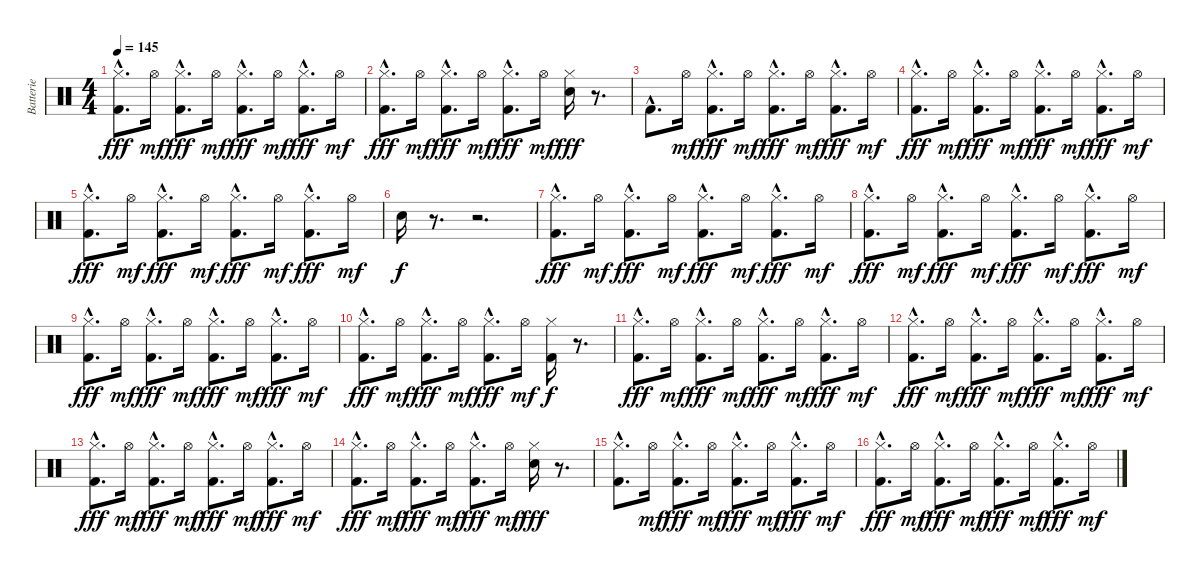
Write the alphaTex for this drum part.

\track ("Batterie" "Batterie") {instrument percussion}
\staff {score}
\articulation defaults
\ts (4 4)
\tempo 145
\clef neutral
\ks c
("Hi-Hat (closed)"{hac} "Kick (hit) 2"{hac}).8{d dy fff} "Hi-Hat (open)".16{dy mf} ("Hi-Hat (closed)"{hac} "Kick (hit) 2"{hac}).8{d dy fff} "Hi-Hat (open)".16{dy mf} ("Hi-Hat (closed)"{hac} "Kick (hit) 2"{hac}).8{d dy fff} "Hi-Hat (open)".16{dy mf} ("Hi-Hat (closed)"{hac} "Kick (hit) 2"{hac}).8{d dy fff} "Hi-Hat (open)".16{dy mf} |
("Hi-Hat (closed)"{hac} "Kick (hit) 2"{hac}).8{d dy fff} "Hi-Hat (open)".16{dy mf} ("Hi-Hat (closed)"{hac} "Kick (hit) 2"{hac}).8{d dy fff} "Hi-Hat (open)".16{dy mf} ("Hi-Hat (closed)"{hac} "Kick (hit) 2"{hac}).8{d dy fff} "Hi-Hat (open)".16{dy mf} ("Hi-Hat (closed)" "Electric Snare (hit)").16{dy fff} r.8{d} |
"Kick (hit) 2"{hac}.8{d} "Hi-Hat (open)".16{dy mf} ("Hi-Hat (closed)"{hac} "Kick (hit) 2"{hac}).8{d dy fff} "Hi-Hat (open)".16{dy mf} ("Hi-Hat (closed)"{hac} "Kick (hit) 2"{hac}).8{d dy fff} "Hi-Hat (open)".16{dy mf} ("Hi-Hat (closed)"{hac} "Kick (hit) 2"{hac}).8{d dy fff} "Hi-Hat (open)".16{dy mf} |
("Hi-Hat (closed)"{hac} "Kick (hit) 2"{hac}).8{d dy fff} "Hi-Hat (open)".16{dy mf} ("Hi-Hat (closed)"{hac} "Kick (hit) 2"{hac}).8{d dy fff} "Hi-Hat (open)".16{dy mf} ("Hi-Hat (closed)"{hac} "Kick (hit) 2"{hac}).8{d dy fff} "Hi-Hat (open)".16{dy mf} ("Hi-Hat (closed)"{hac} "Kick (hit) 2"{hac}).8{d dy fff} "Hi-Hat (open)".16{dy mf} |
("Hi-Hat (closed)"{hac} "Kick (hit) 2"{hac}).8{d dy fff} "Hi-Hat (open)".16{dy mf} ("Hi-Hat (closed)"{hac} "Kick (hit) 2"{hac}).8{d dy fff} "Hi-Hat (open)".16{dy mf} ("Hi-Hat (closed)"{hac} "Kick (hit) 2"{hac}).8{d dy fff} "Hi-Hat (open)".16{dy mf} ("Hi-Hat (closed)"{hac} "Kick (hit) 2"{hac}).8{d dy fff} "Hi-Hat (open)".16{dy mf} |
"Electric Snare (hit)".16{dy f} r.8{d} r.2{d} |
("Hi-Hat (closed)"{hac} "Kick (hit) 2"{hac}).8{d dy fff} "Hi-Hat (open)".16{dy mf} ("Hi-Hat (closed)"{hac} "Kick (hit) 2"{hac}).8{d dy fff} "Hi-Hat (open)".16{dy mf} ("Hi-Hat (closed)"{hac} "Kick (hit) 2"{hac}).8{d dy fff} "Hi-Hat (open)".16{dy mf} ("Hi-Hat (closed)"{hac} "Kick (hit) 2"{hac}).8{d dy fff} "Hi-Hat (open)".16{dy mf} |
("Hi-Hat (closed)"{hac} "Kick (hit) 2"{hac}).8{d dy fff} "Hi-Hat (open)".16{dy mf} ("Hi-Hat (closed)"{hac} "Kick (hit) 2"{hac}).8{d dy fff} "Hi-Hat (open)".16{dy mf} ("Hi-Hat (closed)"{hac} "Kick (hit) 2"{hac}).8{d dy fff} "Hi-Hat (open)".16{dy mf} ("Hi-Hat (closed)"{hac} "Kick (hit) 2"{hac}).8{d dy fff} "Hi-Hat (open)".16{dy mf} |
("Hi-Hat (closed)"{hac} "Kick (hit) 2"{hac}).8{d dy fff} "Hi-Hat (open)".16{dy mf} ("Hi-Hat (closed)"{hac} "Kick (hit) 2"{hac}).8{d dy fff} "Hi-Hat (open)".16{dy mf} ("Hi-Hat (closed)"{hac} "Kick (hit) 2"{hac}).8{d dy fff} "Hi-Hat (open)".16{dy mf} ("Hi-Hat (closed)"{hac} "Kick (hit) 2"{hac}).8{d dy fff} "Hi-Hat (open)".16{dy mf} |
("Hi-Hat (closed)"{hac} "Kick (hit) 2"{hac}).8{d dy fff} "Hi-Hat (open)".16{dy mf} ("Hi-Hat (closed)"{hac} "Kick (hit) 2"{hac}).8{d dy fff} "Hi-Hat (open)".16{dy mf} ("Hi-Hat (closed)"{hac} "Kick (hit) 2"{hac}).8{d dy fff} "Hi-Hat (open)".16{dy mf} ("Hi-Hat (closed)" "Kick (hit) 2").16{dy f} r.8{d} |
("Hi-Hat (closed)"{hac} "Kick (hit) 2"{hac}).8{d dy fff} "Hi-Hat (open)".16{dy mf} ("Hi-Hat (closed)"{hac} "Kick (hit) 2"{hac}).8{d dy fff} "Hi-Hat (open)".16{dy mf} ("Hi-Hat (closed)"{hac} "Kick (hit) 2"{hac}).8{d dy fff} "Hi-Hat (open)".16{dy mf} ("Hi-Hat (closed)"{hac} "Kick (hit) 2"{hac}).8{d dy fff} "Hi-Hat (open)".16{dy mf} |
("Hi-Hat (closed)"{hac} "Kick (hit) 2"{hac}).8{d dy fff} "Hi-Hat (open)".16{dy mf} ("Hi-Hat (closed)"{hac} "Kick (hit) 2"{hac}).8{d dy fff} "Hi-Hat (open)".16{dy mf} ("Hi-Hat (closed)"{hac} "Kick (hit) 2"{hac}).8{d dy fff} "Hi-Hat (open)".16{dy mf} ("Hi-Hat (closed)"{hac} "Kick (hit) 2"{hac}).8{d dy fff} "Hi-Hat (open)".16{dy mf} |
("Hi-Hat (closed)"{hac} "Kick (hit) 2"{hac}).8{d dy fff} "Hi-Hat (open)".16{dy mf} ("Hi-Hat (closed)"{hac} "Kick (hit) 2"{hac}).8{d dy fff} "Hi-Hat (open)".16{dy mf} ("Hi-Hat (closed)"{hac} "Kick (hit) 2"{hac}).8{d dy fff} "Hi-Hat (open)".16{dy mf} ("Hi-Hat (closed)"{hac} "Kick (hit) 2"{hac}).8{d dy fff} "Hi-Hat (open)".16{dy mf} |
("Hi-Hat (closed)"{hac} "Kick (hit) 2"{hac}).8{d dy fff} "Hi-Hat (open)".16{dy mf} ("Hi-Hat (closed)"{hac} "Kick (hit) 2"{hac}).8{d dy fff} "Hi-Hat (open)".16{dy mf} ("Hi-Hat (closed)"{hac} "Kick (hit) 2"{hac}).8{d dy fff} "Hi-Hat (open)".16{dy mf} ("Hi-Hat (closed)" "Electric Snare (hit)").16{dy fff} r.8{d} |
("Hi-Hat (closed)"{hac} "Kick (hit) 2"{hac}).8{d} "Hi-Hat (open)".16{dy mf} ("Hi-Hat (closed)"{hac} "Kick (hit) 2"{hac}).8{d dy fff} "Hi-Hat (open)".16{dy mf} ("Hi-Hat (closed)"{hac} "Kick (hit) 2"{hac}).8{d dy fff} "Hi-Hat (open)".16{dy mf} ("Hi-Hat (closed)"{hac} "Kick (hit) 2"{hac}).8{d dy fff} "Hi-Hat (open)".16{dy mf} |
("Hi-Hat (closed)"{hac} "Kick (hit) 2"{hac}).8{d dy fff} "Hi-Hat (open)".16{dy mf} ("Hi-Hat (closed)"{hac} "Kick (hit) 2"{hac}).8{d dy fff} "Hi-Hat (open)".16{dy mf} ("Hi-Hat (closed)"{hac} "Kick (hit) 2"{hac}).8{d dy fff} "Hi-Hat (open)".16{dy mf} ("Hi-Hat (closed)"{hac} "Kick (hit) 2"{hac}).8{d dy fff} "Hi-Hat (open)".16{dy mf}
